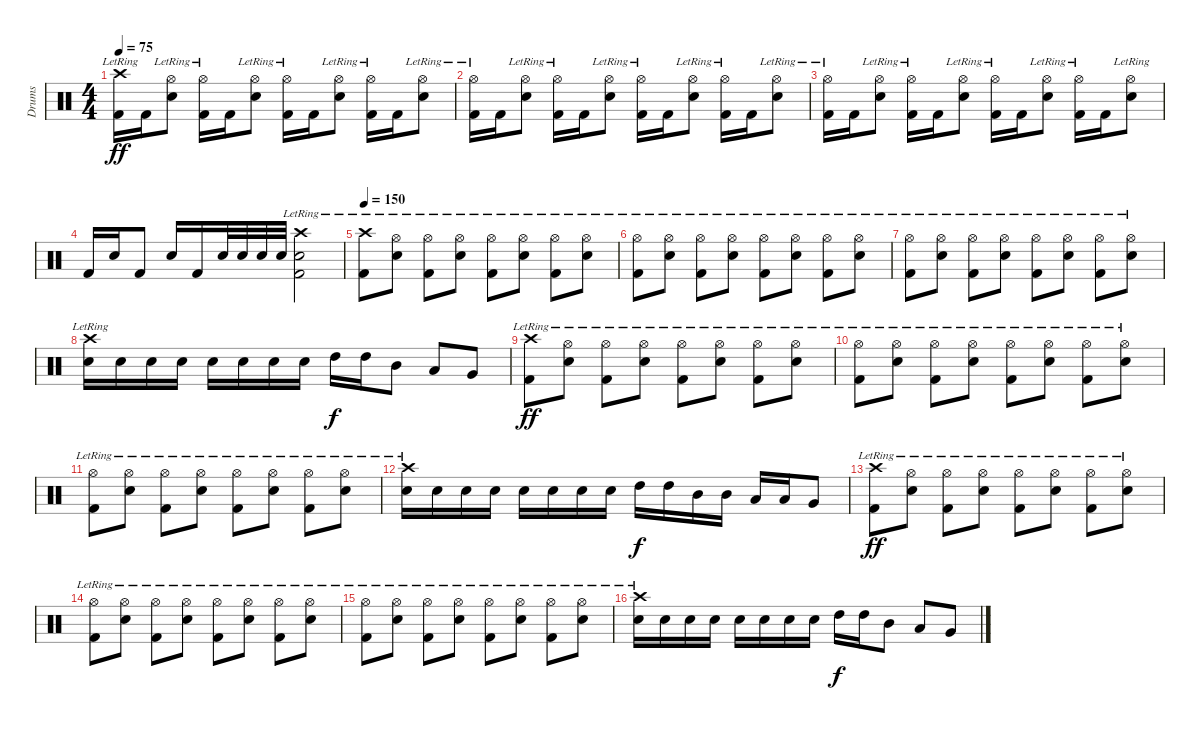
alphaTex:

\track ("Drums" "Drums") {instrument percussion}
\staff {score}
\articulation defaults
\ts (4 4)
\tempo 75
\clef neutral
\ks c
("Crash high (hit)"{lr} "Kick (hit) 2").16{dy ff} "Kick (hit) 2".16 ("Hi-Hat (open)"{lr} "Snare (hit) 2").8 ("Hi-Hat (open)"{lr} "Kick (hit) 2").16 "Kick (hit) 2".16 ("Hi-Hat (open)"{lr} "Snare (hit) 2").8 ("Hi-Hat (open)"{lr} "Kick (hit) 2").16 "Kick (hit) 2".16 ("Hi-Hat (open)"{lr} "Snare (hit) 2").8 ("Hi-Hat (open)"{lr} "Kick (hit) 2").16 "Kick (hit) 2".16 ("Hi-Hat (open)"{lr} "Snare (hit) 2").8 |
("Hi-Hat (open)"{lr} "Kick (hit) 2").16 "Kick (hit) 2".16 ("Hi-Hat (open)"{lr} "Snare (hit) 2").8 ("Hi-Hat (open)"{lr} "Kick (hit) 2").16 "Kick (hit) 2".16 ("Hi-Hat (open)"{lr} "Snare (hit) 2").8 ("Hi-Hat (open)"{lr} "Kick (hit) 2").16 "Kick (hit) 2".16 ("Hi-Hat (open)"{lr} "Snare (hit) 2").8 ("Hi-Hat (open)"{lr} "Kick (hit) 2").16 "Kick (hit) 2".16 ("Hi-Hat (open)"{lr} "Snare (hit) 2").8 |
("Hi-Hat (open)"{lr} "Kick (hit) 2").16 "Kick (hit) 2".16 ("Hi-Hat (open)"{lr} "Snare (hit) 2").8 ("Hi-Hat (open)"{lr} "Kick (hit) 2").16 "Kick (hit) 2".16 ("Hi-Hat (open)"{lr} "Snare (hit) 2").8 ("Hi-Hat (open)"{lr} "Kick (hit) 2").16 "Kick (hit) 2".16 ("Hi-Hat (open)"{lr} "Snare (hit) 2").8 ("Hi-Hat (open)"{lr} "Kick (hit) 2").16 "Kick (hit) 2".16 ("Hi-Hat (open)"{lr} "Snare (hit) 2").8 |
"Kick (hit) 2".16 "Snare (hit) 2".16 "Kick (hit) 2".8 "Snare (hit) 2".16 "Kick (hit) 2".16 "Snare (hit) 2".32 "Snare (hit) 2".32 "Snare (hit) 2".32 "Snare (hit) 2".32 ("Crash high (hit)"{lr} "Snare (hit) 2" "Kick (hit) 2").2 |
\tempo 150
("Crash high (hit)"{lr} "Kick (hit) 2").8 ("Hi-Hat (open)"{lr} "Snare (hit) 2").8 ("Hi-Hat (open)"{lr} "Kick (hit) 2").8 ("Hi-Hat (open)"{lr} "Snare (hit) 2").8 ("Hi-Hat (open)"{lr} "Kick (hit) 2").8 ("Hi-Hat (open)"{lr} "Snare (hit) 2").8 ("Hi-Hat (open)"{lr} "Kick (hit) 2").8 ("Hi-Hat (open)"{lr} "Snare (hit) 2").8 |
("Hi-Hat (open)"{lr} "Kick (hit) 2").8 ("Hi-Hat (open)"{lr} "Snare (hit) 2").8 ("Hi-Hat (open)"{lr} "Kick (hit) 2").8 ("Hi-Hat (open)"{lr} "Snare (hit) 2").8 ("Hi-Hat (open)"{lr} "Kick (hit) 2").8 ("Hi-Hat (open)"{lr} "Snare (hit) 2").8 ("Hi-Hat (open)"{lr} "Kick (hit) 2").8 ("Hi-Hat (open)"{lr} "Snare (hit) 2").8 |
("Hi-Hat (open)"{lr} "Kick (hit) 2").8 ("Hi-Hat (open)"{lr} "Snare (hit) 2").8 ("Hi-Hat (open)"{lr} "Kick (hit) 2").8 ("Hi-Hat (open)"{lr} "Snare (hit) 2").8 ("Hi-Hat (open)"{lr} "Kick (hit) 2").8 ("Hi-Hat (open)"{lr} "Snare (hit) 2").8 ("Hi-Hat (open)"{lr} "Kick (hit) 2").8 ("Hi-Hat (open)"{lr} "Snare (hit) 2").8 |
("Crash high (hit)"{lr} "Snare (hit) 2").16 "Snare (hit) 2".16 "Snare (hit) 2".16 "Snare (hit) 2".16 "Snare (hit) 2".16 "Snare (hit) 2".16 "Snare (hit) 2".16 "Snare (hit) 2".16 "High Tom (hit)".16{dy f} "High Tom (hit)".16 "Mid Tom (hit)".8 "Low Tom (hit)".8 "Very Low Tom (hit)".8 |
("Crash high (hit)"{lr} "Kick (hit) 2").8{dy ff} ("Hi-Hat (open)"{lr} "Snare (hit) 2").8 ("Hi-Hat (open)"{lr} "Kick (hit) 2").8 ("Hi-Hat (open)"{lr} "Snare (hit) 2").8 ("Hi-Hat (open)"{lr} "Kick (hit) 2").8 ("Hi-Hat (open)"{lr} "Snare (hit) 2").8 ("Hi-Hat (open)"{lr} "Kick (hit) 2").8 ("Hi-Hat (open)"{lr} "Snare (hit) 2").8 |
("Hi-Hat (open)"{lr} "Kick (hit) 2").8 ("Hi-Hat (open)"{lr} "Snare (hit) 2").8 ("Hi-Hat (open)"{lr} "Kick (hit) 2").8 ("Hi-Hat (open)"{lr} "Snare (hit) 2").8 ("Hi-Hat (open)"{lr} "Kick (hit) 2").8 ("Hi-Hat (open)"{lr} "Snare (hit) 2").8 ("Hi-Hat (open)"{lr} "Kick (hit) 2").8 ("Hi-Hat (open)"{lr} "Snare (hit) 2").8 |
("Hi-Hat (open)"{lr} "Kick (hit) 2").8 ("Hi-Hat (open)"{lr} "Snare (hit) 2").8 ("Hi-Hat (open)"{lr} "Kick (hit) 2").8 ("Hi-Hat (open)"{lr} "Snare (hit) 2").8 ("Hi-Hat (open)"{lr} "Kick (hit) 2").8 ("Hi-Hat (open)"{lr} "Snare (hit) 2").8 ("Hi-Hat (open)"{lr} "Kick (hit) 2").8 ("Hi-Hat (open)"{lr} "Snare (hit) 2").8 |
("Crash high (hit)"{lr} "Snare (hit) 2").16 "Snare (hit) 2".16 "Snare (hit) 2".16 "Snare (hit) 2".16 "Snare (hit) 2".16 "Snare (hit) 2".16 "Snare (hit) 2".16 "Snare (hit) 2".16 "High Tom (hit)".16{dy f} "High Tom (hit)".16 "Mid Tom (hit)".16 "Mid Tom (hit)".16 "Low Tom (hit)".16 "Low Tom (hit)".16 "Very Low Tom (hit)".8 |
("Crash high (hit)"{lr} "Kick (hit) 2").8{dy ff} ("Hi-Hat (open)"{lr} "Snare (hit) 2").8 ("Hi-Hat (open)"{lr} "Kick (hit) 2").8 ("Hi-Hat (open)"{lr} "Snare (hit) 2").8 ("Hi-Hat (open)"{lr} "Kick (hit) 2").8 ("Hi-Hat (open)"{lr} "Snare (hit) 2").8 ("Hi-Hat (open)"{lr} "Kick (hit) 2").8 ("Hi-Hat (open)"{lr} "Snare (hit) 2").8 |
("Hi-Hat (open)"{lr} "Kick (hit) 2").8 ("Hi-Hat (open)"{lr} "Snare (hit) 2").8 ("Hi-Hat (open)"{lr} "Kick (hit) 2").8 ("Hi-Hat (open)"{lr} "Snare (hit) 2").8 ("Hi-Hat (open)"{lr} "Kick (hit) 2").8 ("Hi-Hat (open)"{lr} "Snare (hit) 2").8 ("Hi-Hat (open)"{lr} "Kick (hit) 2").8 ("Hi-Hat (open)"{lr} "Snare (hit) 2").8 |
("Hi-Hat (open)"{lr} "Kick (hit) 2").8 ("Hi-Hat (open)"{lr} "Snare (hit) 2").8 ("Hi-Hat (open)"{lr} "Kick (hit) 2").8 ("Hi-Hat (open)"{lr} "Snare (hit) 2").8 ("Hi-Hat (open)"{lr} "Kick (hit) 2").8 ("Hi-Hat (open)"{lr} "Snare (hit) 2").8 ("Hi-Hat (open)"{lr} "Kick (hit) 2").8 ("Hi-Hat (open)"{lr} "Snare (hit) 2").8 |
("Crash high (hit)"{lr} "Snare (hit) 2").16 "Snare (hit) 2".16 "Snare (hit) 2".16 "Snare (hit) 2".16 "Snare (hit) 2".16 "Snare (hit) 2".16 "Snare (hit) 2".16 "Snare (hit) 2".16 "High Tom (hit)".16{dy f} "High Tom (hit)".16 "Mid Tom (hit)".8 "Low Tom (hit)".8 "Very Low Tom (hit)".8
